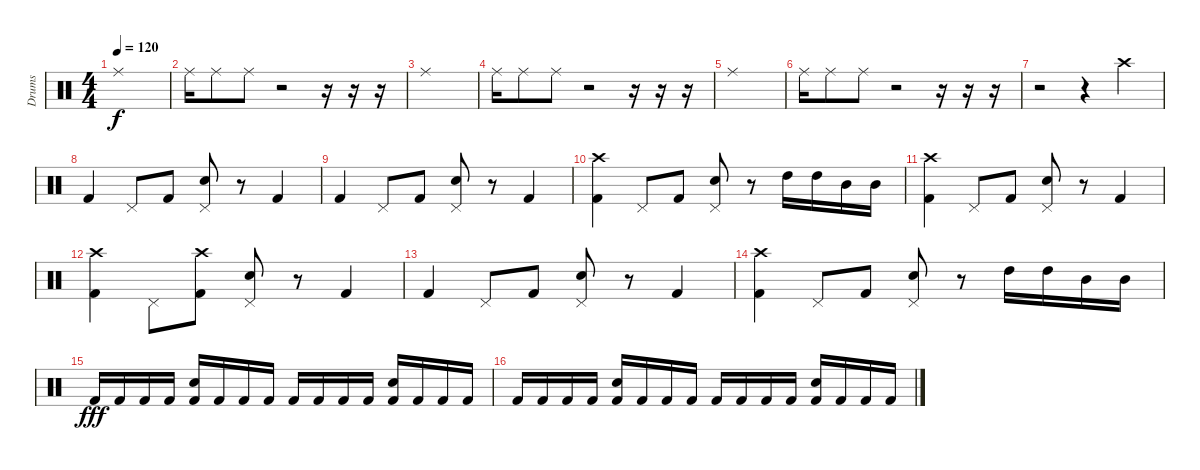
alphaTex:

\track ("Drums" "Drums") {instrument percussion}
\staff {score}
\articulation defaults
\ts (4 4)
\tempo 120
\clef neutral
\ks c "Ride (middle)".1{dy f}
|
"Ride (middle)".16 "Ride (middle)".8 "Ride (middle)".8 r.2 r.16 r.16 r.16 |
"Ride (middle)".1 |
"Ride (middle)".16 "Ride (middle)".8 "Ride (middle)".8 r.2 r.16 r.16 r.16 |
"Ride (middle)".1 |
"Ride (middle)".16 "Ride (middle)".8 "Ride (middle)".8 r.2 r.16 r.16 r.16 |
r.2 r.4 "Crash high (hit)".4 |
"Kick (hit) 2".4 "Pedal Hi-Hat (hit)".8 "Kick (hit) 2".8 ("Electric Snare (hit)" "Pedal Hi-Hat (hit)").8 r.8 "Kick (hit) 2".4 |
"Kick (hit) 2".4 "Pedal Hi-Hat (hit)".8 "Kick (hit) 2".8 ("Electric Snare (hit)" "Pedal Hi-Hat (hit)").8 r.8 "Kick (hit) 2".4 |
("Crash high (hit)" "Kick (hit) 2").4 "Pedal Hi-Hat (hit)".8 "Kick (hit) 2".8 ("Electric Snare (hit)" "Pedal Hi-Hat (hit)").8 r.8 "High Tom (hit)".16 "High Tom (hit)".16 "Mid Tom (hit)".16 "Mid Tom (hit)".16 |
("Crash high (hit)" "Kick (hit) 2").4 "Pedal Hi-Hat (hit)".8 "Kick (hit) 2".8 ("Electric Snare (hit)" "Pedal Hi-Hat (hit)").8 r.8 "Kick (hit) 2".4 |
("Crash high (hit)" "Kick (hit) 2").4 "Pedal Hi-Hat (hit)".8 ("Crash high (hit)" "Kick (hit) 2").8 ("Electric Snare (hit)" "Pedal Hi-Hat (hit)").8 r.8 "Kick (hit) 2".4 |
"Kick (hit) 2".4 "Pedal Hi-Hat (hit)".8 "Kick (hit) 2".8 ("Electric Snare (hit)" "Pedal Hi-Hat (hit)").8 r.8 "Kick (hit) 2".4 |
("Crash high (hit)" "Kick (hit) 2").4 "Pedal Hi-Hat (hit)".8 "Kick (hit) 2".8 ("Electric Snare (hit)" "Pedal Hi-Hat (hit)").8 r.8 "High Tom (hit)".16 "High Tom (hit)".16 "Mid Tom (hit)".16 "Mid Tom (hit)".16 |
"Kick (hit) 2".16{dy fff} "Kick (hit) 2".16 "Kick (hit) 2".16 "Kick (hit) 2".16 ("Snare (hit) 2" "Kick (hit) 2").16 "Kick (hit) 2".16 "Kick (hit) 2".16 "Kick (hit) 2".16 "Kick (hit) 2".16 "Kick (hit) 2".16 "Kick (hit) 2".16 "Kick (hit) 2".16 ("Snare (hit) 2" "Kick (hit) 2").16 "Kick (hit) 2".16 "Kick (hit) 2".16 "Kick (hit) 2".16 |
"Kick (hit) 2".16 "Kick (hit) 2".16 "Kick (hit) 2".16 "Kick (hit) 2".16 ("Snare (hit) 2" "Kick (hit) 2").16 "Kick (hit) 2".16 "Kick (hit) 2".16 "Kick (hit) 2".16 "Kick (hit) 2".16 "Kick (hit) 2".16 "Kick (hit) 2".16 "Kick (hit) 2".16 ("Snare (hit) 2" "Kick (hit) 2").16 "Kick (hit) 2".16 "Kick (hit) 2".16 "Kick (hit) 2".16
